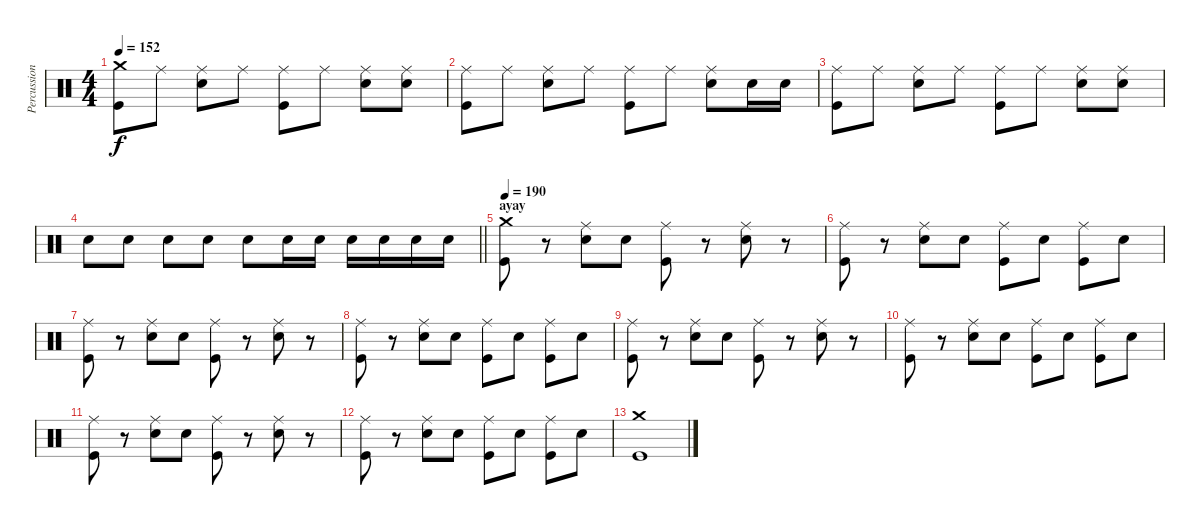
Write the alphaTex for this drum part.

\track ("Percussion" "Percussion") {instrument percussion}
\staff {score}
\articulation defaults
\ts (4 4)
\tempo 152
\clef neutral
\ks c
("Crash medium (hit)" "Kick (hit)").8{dy f} "Ride (middle)".8 ("Ride (middle)" "Snare (hit) 2").8 "Ride (middle)".8 ("Ride (middle)" "Kick (hit)").8 "Ride (middle)".8 ("Ride (middle)" "Snare (hit) 2").8 ("Ride (middle)" "Snare (hit) 2").8 |
("Ride (middle)" "Kick (hit)").8 "Ride (middle)".8 ("Ride (middle)" "Snare (hit) 2").8 "Ride (middle)".8 ("Ride (middle)" "Kick (hit)").8 "Ride (middle)".8 ("Ride (middle)" "Snare (hit) 2").8 "Snare (hit) 2".16 "Snare (hit) 2".16 |
("Ride (middle)" "Kick (hit)").8 "Ride (middle)".8 ("Ride (middle)" "Snare (hit) 2").8 "Ride (middle)".8 ("Ride (middle)" "Kick (hit)").8 "Ride (middle)".8 ("Ride (middle)" "Snare (hit) 2").8 ("Ride (middle)" "Snare (hit) 2").8 |
\barLineRight lightlight "Snare (hit) 2".8 "Snare (hit) 2".8 "Snare (hit) 2".8 "Snare (hit) 2".8 "Snare (hit) 2".8 "Snare (hit) 2".16 "Snare (hit) 2".16 "Snare (hit) 2".16 "Snare (hit) 2".16 "Snare (hit) 2".16 "Snare (hit) 2".16
|
\section ("" "ayay")
\tempo 190
("Crash medium (hit)" "Kick (hit)").8 r.8 ("Ride (middle)" "Snare (hit) 2").8 "Snare (hit) 2".8 ("Ride (middle)" "Kick (hit)").8 r.8 ("Ride (middle)" "Snare (hit) 2").8 r.8 |
("Ride (middle)" "Kick (hit)").8 r.8 ("Ride (middle)" "Snare (hit) 2").8 "Snare (hit) 2".8 ("Ride (middle)" "Kick (hit)").8 "Snare (hit) 2".8 ("Ride (middle)" "Kick (hit)").8 "Snare (hit) 2".8 |
("Ride (middle)" "Kick (hit)").8 r.8 ("Ride (middle)" "Snare (hit) 2").8 "Snare (hit) 2".8 ("Ride (middle)" "Kick (hit)").8 r.8 ("Ride (middle)" "Snare (hit) 2").8 r.8 |
("Ride (middle)" "Kick (hit)").8 r.8 ("Ride (middle)" "Snare (hit) 2").8 "Snare (hit) 2".8 ("Ride (middle)" "Kick (hit)").8 "Snare (hit) 2".8 ("Ride (middle)" "Kick (hit)").8 "Snare (hit) 2".8 |
("Ride (middle)" "Kick (hit)").8 r.8 ("Ride (middle)" "Snare (hit) 2").8 "Snare (hit) 2".8 ("Ride (middle)" "Kick (hit)").8 r.8 ("Ride (middle)" "Snare (hit) 2").8 r.8 |
("Ride (middle)" "Kick (hit)").8 r.8 ("Ride (middle)" "Snare (hit) 2").8 "Snare (hit) 2".8 ("Ride (middle)" "Kick (hit)").8 "Snare (hit) 2".8 ("Ride (middle)" "Kick (hit)").8 "Snare (hit) 2".8 |
("Ride (middle)" "Kick (hit)").8 r.8 ("Ride (middle)" "Snare (hit) 2").8 "Snare (hit) 2".8 ("Ride (middle)" "Kick (hit)").8 r.8 ("Ride (middle)" "Snare (hit) 2").8 r.8 |
("Ride (middle)" "Kick (hit)").8 r.8 ("Ride (middle)" "Snare (hit) 2").8 "Snare (hit) 2".8 ("Ride (middle)" "Kick (hit)").8 "Snare (hit) 2".8 ("Ride (middle)" "Kick (hit)").8 "Snare (hit) 2".8 |
("Crash medium (hit)" "Kick (hit)").1
